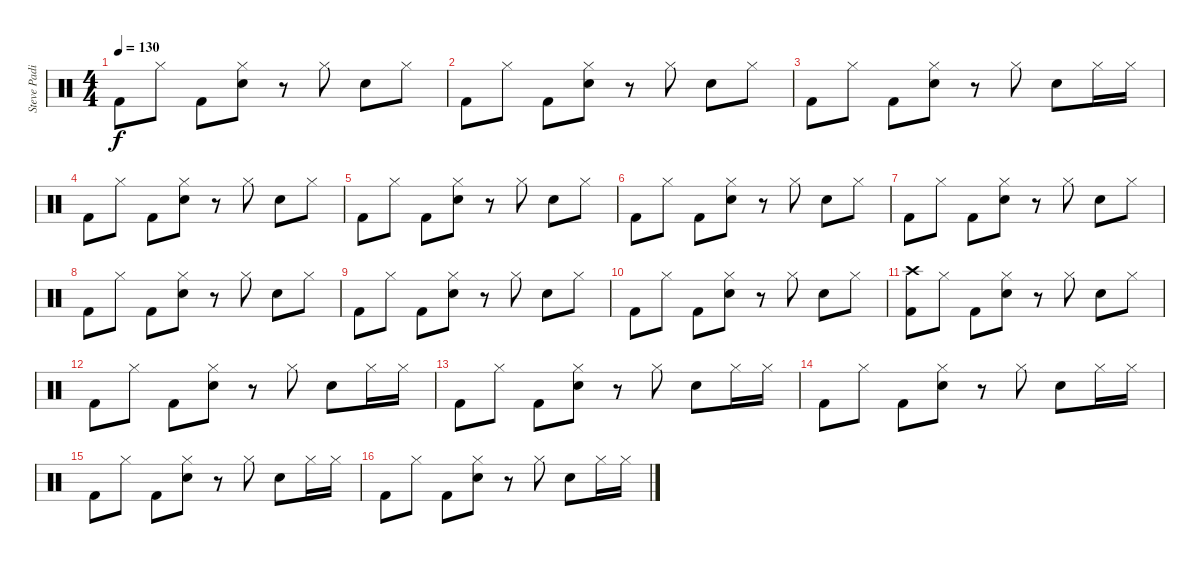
\track ("Steve Padin" "Steve Padi") {instrument percussion}
\staff {score}
\articulation defaults
\ts (4 4)
\tempo 130
\clef neutral
\ks c "Kick (hit) 2".8{dy f} "Hi-Hat (closed)".8 "Kick (hit) 2".8
("Hi-Hat (closed)" "Electric Snare (hit)").8 r.8 "Hi-Hat (closed)".8 "Electric Snare (hit)".8 "Hi-Hat (closed)".8 |
"Kick (hit) 2".8 "Hi-Hat (closed)".8 "Kick (hit) 2".8 ("Hi-Hat (closed)" "Electric Snare (hit)").8 r.8 "Hi-Hat (closed)".8 "Electric Snare (hit)".8 "Hi-Hat (closed)".8 |
"Kick (hit) 2".8 "Hi-Hat (closed)".8 "Kick (hit) 2".8 ("Hi-Hat (closed)" "Electric Snare (hit)").8 r.8 "Hi-Hat (closed)".8 "Electric Snare (hit)".8 "Hi-Hat (closed)".16 "Hi-Hat (closed)".16 |
"Kick (hit) 2".8 "Hi-Hat (closed)".8 "Kick (hit) 2".8 ("Hi-Hat (closed)" "Electric Snare (hit)").8 r.8 "Hi-Hat (closed)".8 "Electric Snare (hit)".8 "Hi-Hat (closed)".8 |
"Kick (hit) 2".8 "Hi-Hat (closed)".8 "Kick (hit) 2".8 ("Hi-Hat (closed)" "Electric Snare (hit)").8 r.8 "Hi-Hat (closed)".8 "Electric Snare (hit)".8 "Hi-Hat (closed)".8 |
"Kick (hit) 2".8 "Hi-Hat (closed)".8 "Kick (hit) 2".8 ("Hi-Hat (closed)" "Electric Snare (hit)").8 r.8 "Hi-Hat (closed)".8 "Electric Snare (hit)".8 "Hi-Hat (closed)".8 |
"Kick (hit) 2".8 "Hi-Hat (closed)".8 "Kick (hit) 2".8 ("Hi-Hat (closed)" "Electric Snare (hit)").8 r.8 "Hi-Hat (closed)".8 "Electric Snare (hit)".8 "Hi-Hat (closed)".8 |
"Kick (hit) 2".8 "Hi-Hat (closed)".8 "Kick (hit) 2".8 ("Hi-Hat (closed)" "Electric Snare (hit)").8 r.8 "Hi-Hat (closed)".8 "Electric Snare (hit)".8 "Hi-Hat (closed)".8 |
"Kick (hit) 2".8 "Hi-Hat (closed)".8 "Kick (hit) 2".8 ("Hi-Hat (closed)" "Electric Snare (hit)").8 r.8 "Hi-Hat (closed)".8 "Electric Snare (hit)".8 "Hi-Hat (closed)".8 |
"Kick (hit) 2".8 "Hi-Hat (closed)".8 "Kick (hit) 2".8 ("Hi-Hat (closed)" "Electric Snare (hit)").8 r.8 "Hi-Hat (closed)".8 "Electric Snare (hit)".8 "Hi-Hat (closed)".8 |
("Crash high (hit)" "Kick (hit) 2").8 "Hi-Hat (closed)".8 "Kick (hit) 2".8 ("Hi-Hat (closed)" "Electric Snare (hit)").8 r.8 "Hi-Hat (closed)".8 "Electric Snare (hit)".8 "Hi-Hat (closed)".8 |
"Kick (hit) 2".8 "Hi-Hat (closed)".8 "Kick (hit) 2".8 ("Hi-Hat (closed)" "Electric Snare (hit)").8 r.8 "Hi-Hat (closed)".8 "Electric Snare (hit)".8 "Hi-Hat (closed)".16 "Hi-Hat (closed)".16 |
"Kick (hit) 2".8 "Hi-Hat (closed)".8 "Kick (hit) 2".8 ("Hi-Hat (closed)" "Electric Snare (hit)").8 r.8 "Hi-Hat (closed)".8 "Electric Snare (hit)".8 "Hi-Hat (closed)".16 "Hi-Hat (closed)".16 |
"Kick (hit) 2".8 "Hi-Hat (closed)".8 "Kick (hit) 2".8 ("Hi-Hat (closed)" "Electric Snare (hit)").8 r.8 "Hi-Hat (closed)".8 "Electric Snare (hit)".8 "Hi-Hat (closed)".16 "Hi-Hat (closed)".16 |
"Kick (hit) 2".8 "Hi-Hat (closed)".8 "Kick (hit) 2".8 ("Hi-Hat (closed)" "Electric Snare (hit)").8 r.8 "Hi-Hat (closed)".8 "Electric Snare (hit)".8 "Hi-Hat (closed)".16 "Hi-Hat (closed)".16 |
"Kick (hit) 2".8 "Hi-Hat (closed)".8 "Kick (hit) 2".8 ("Hi-Hat (closed)" "Electric Snare (hit)").8 r.8 "Hi-Hat (closed)".8 "Electric Snare (hit)".8 "Hi-Hat (closed)".16 "Hi-Hat (closed)".16
